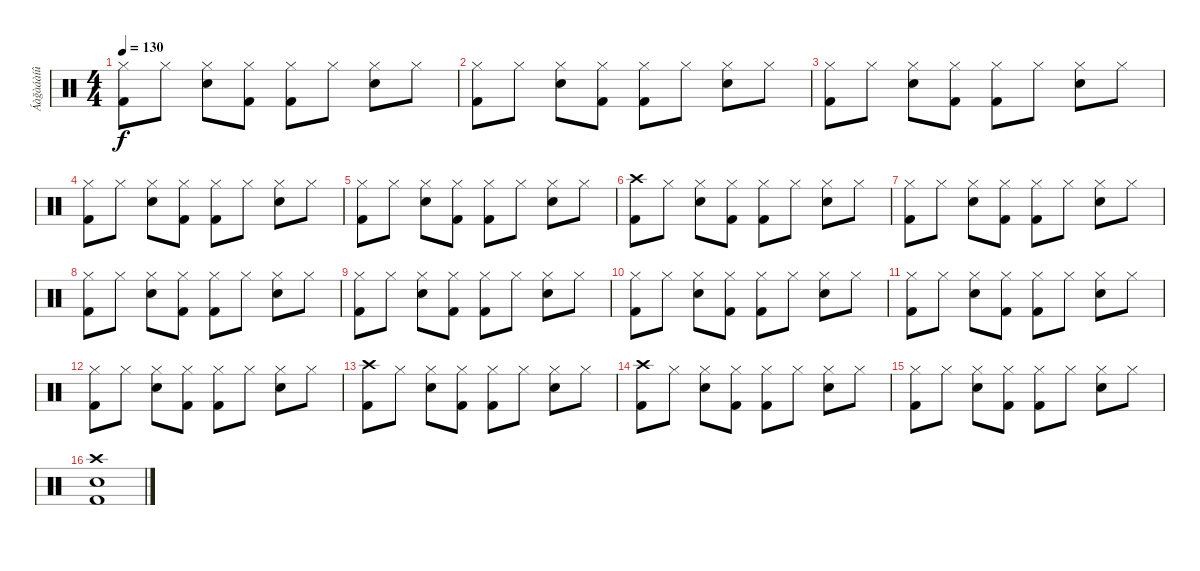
\track ("Áàğàáàíû" "Áàğàáàíû") {instrument percussion}
\staff {score}
\articulation defaults
\ts (4 4)
\tempo 130
\clef neutral
\ks c
("Hi-Hat (closed)" "Kick (hit) 2").8{dy f} "Hi-Hat (closed)".8 ("Hi-Hat (closed)" "Snare (hit) 2").8 ("Hi-Hat (closed)" "Kick (hit) 2").8 ("Hi-Hat (closed)" "Kick (hit) 2").8 "Hi-Hat (closed)".8 ("Hi-Hat (closed)" "Snare (hit) 2").8 "Hi-Hat (closed)".8 |
("Hi-Hat (closed)" "Kick (hit) 2").8 "Hi-Hat (closed)".8 ("Hi-Hat (closed)" "Snare (hit) 2").8 ("Hi-Hat (closed)" "Kick (hit) 2").8 ("Hi-Hat (closed)" "Kick (hit) 2").8 "Hi-Hat (closed)".8 ("Hi-Hat (closed)" "Snare (hit) 2").8 "Hi-Hat (closed)".8 |
("Hi-Hat (closed)" "Kick (hit) 2").8 "Hi-Hat (closed)".8 ("Hi-Hat (closed)" "Snare (hit) 2").8 ("Hi-Hat (closed)" "Kick (hit) 2").8 ("Hi-Hat (closed)" "Kick (hit) 2").8 "Hi-Hat (closed)".8 ("Hi-Hat (closed)" "Snare (hit) 2").8 "Hi-Hat (closed)".8 |
("Hi-Hat (closed)" "Kick (hit) 2").8 "Hi-Hat (closed)".8 ("Hi-Hat (closed)" "Snare (hit) 2").8 ("Hi-Hat (closed)" "Kick (hit) 2").8 ("Hi-Hat (closed)" "Kick (hit) 2").8 "Hi-Hat (closed)".8 ("Hi-Hat (closed)" "Snare (hit) 2").8 "Hi-Hat (closed)".8 |
("Hi-Hat (closed)" "Kick (hit) 2").8 "Hi-Hat (closed)".8 ("Hi-Hat (closed)" "Snare (hit) 2").8 ("Hi-Hat (closed)" "Kick (hit) 2").8 ("Hi-Hat (closed)" "Kick (hit) 2").8 "Hi-Hat (closed)".8 ("Hi-Hat (closed)" "Snare (hit) 2").8 "Hi-Hat (closed)".8 |
("Crash high (hit)" "Kick (hit) 2").8 "Hi-Hat (closed)".8 ("Hi-Hat (closed)" "Snare (hit) 2").8 ("Hi-Hat (closed)" "Kick (hit) 2").8 ("Hi-Hat (closed)" "Kick (hit) 2").8 "Hi-Hat (closed)".8 ("Hi-Hat (closed)" "Snare (hit) 2").8 "Hi-Hat (closed)".8 |
("Hi-Hat (closed)" "Kick (hit) 2").8 "Hi-Hat (closed)".8 ("Hi-Hat (closed)" "Snare (hit) 2").8 ("Hi-Hat (closed)" "Kick (hit) 2").8 ("Hi-Hat (closed)" "Kick (hit) 2").8 "Hi-Hat (closed)".8 ("Hi-Hat (closed)" "Snare (hit) 2").8 "Hi-Hat (closed)".8 |
("Hi-Hat (closed)" "Kick (hit) 2").8 "Hi-Hat (closed)".8 ("Hi-Hat (closed)" "Snare (hit) 2").8 ("Hi-Hat (closed)" "Kick (hit) 2").8 ("Hi-Hat (closed)" "Kick (hit) 2").8 "Hi-Hat (closed)".8 ("Hi-Hat (closed)" "Snare (hit) 2").8 "Hi-Hat (closed)".8 |
("Hi-Hat (closed)" "Kick (hit) 2").8 "Hi-Hat (closed)".8 ("Hi-Hat (closed)" "Snare (hit) 2").8 ("Hi-Hat (closed)" "Kick (hit) 2").8 ("Hi-Hat (closed)" "Kick (hit) 2").8 "Hi-Hat (closed)".8 ("Hi-Hat (closed)" "Snare (hit) 2").8 "Hi-Hat (closed)".8 |
("Hi-Hat (closed)" "Kick (hit) 2").8 "Hi-Hat (closed)".8 ("Hi-Hat (closed)" "Snare (hit) 2").8 ("Hi-Hat (closed)" "Kick (hit) 2").8 ("Hi-Hat (closed)" "Kick (hit) 2").8 "Hi-Hat (closed)".8 ("Hi-Hat (closed)" "Snare (hit) 2").8 "Hi-Hat (closed)".8 |
("Hi-Hat (closed)" "Kick (hit) 2").8 "Hi-Hat (closed)".8 ("Hi-Hat (closed)" "Snare (hit) 2").8 ("Hi-Hat (closed)" "Kick (hit) 2").8 ("Hi-Hat (closed)" "Kick (hit) 2").8 "Hi-Hat (closed)".8 ("Hi-Hat (closed)" "Snare (hit) 2").8 "Hi-Hat (closed)".8 |
("Hi-Hat (closed)" "Kick (hit) 2").8 "Hi-Hat (closed)".8 ("Hi-Hat (closed)" "Snare (hit) 2").8 ("Hi-Hat (closed)" "Kick (hit) 2").8 ("Hi-Hat (closed)" "Kick (hit) 2").8 "Hi-Hat (closed)".8 ("Hi-Hat (closed)" "Snare (hit) 2").8 "Hi-Hat (closed)".8 |
("Crash high (hit)" "Kick (hit) 2").8 "Hi-Hat (closed)".8 ("Hi-Hat (closed)" "Snare (hit) 2").8 ("Hi-Hat (closed)" "Kick (hit) 2").8 ("Hi-Hat (closed)" "Kick (hit) 2").8 "Hi-Hat (closed)".8 ("Hi-Hat (closed)" "Snare (hit) 2").8 "Hi-Hat (closed)".8 |
("Crash high (hit)" "Kick (hit) 2").8 "Hi-Hat (closed)".8 ("Hi-Hat (closed)" "Snare (hit) 2").8 ("Hi-Hat (closed)" "Kick (hit) 2").8 ("Hi-Hat (closed)" "Kick (hit) 2").8 "Hi-Hat (closed)".8 ("Hi-Hat (closed)" "Snare (hit) 2").8 "Hi-Hat (closed)".8 |
("Hi-Hat (closed)" "Kick (hit) 2").8 "Hi-Hat (closed)".8 ("Hi-Hat (closed)" "Snare (hit) 2").8 ("Hi-Hat (closed)" "Kick (hit) 2").8 ("Hi-Hat (closed)" "Kick (hit) 2").8 "Hi-Hat (closed)".8 ("Hi-Hat (closed)" "Snare (hit) 2").8 "Hi-Hat (closed)".8 |
("Crash high (hit)" "Snare (hit) 2" "Kick (hit) 2").1
